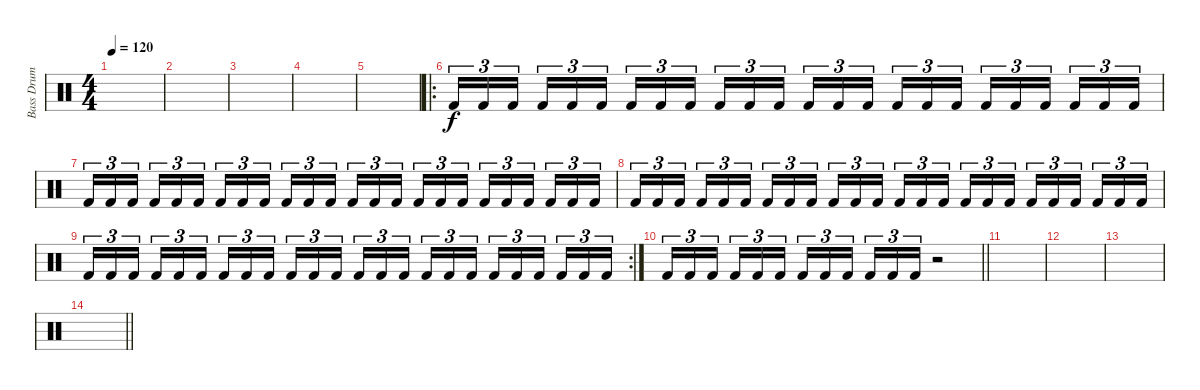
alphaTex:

\track ("Bass Drum Pattern" "Bass Drum ") {instrument percussion}
\staff {score}
\articulation defaults
\ts (4 4)
\tempo 120
\clef neutral
\ks c
|
|
|
|
|
\ro "Kick (hit) 2".16{tu (3 2)} "Kick (hit) 2".16{tu (3 2)} "Kick (hit) 2".16{tu (3 2)} "Kick (hit) 2".16{tu (3 2)} "Kick (hit) 2".16{tu (3 2)} "Kick (hit) 2".16{tu (3 2)} "Kick (hit) 2".16{tu (3 2)} "Kick (hit) 2".16{tu (3 2)} "Kick (hit) 2".16{tu (3 2)} "Kick (hit) 2".16{tu (3 2)} "Kick (hit) 2".16{tu (3 2)} "Kick (hit) 2".16{tu (3 2)} "Kick (hit) 2".16{tu (3 2)} "Kick (hit) 2".16{tu (3 2)} "Kick (hit) 2".16{tu (3 2)} "Kick (hit) 2".16{tu (3 2)} "Kick (hit) 2".16{tu (3 2)} "Kick (hit) 2".16{tu (3 2)} "Kick (hit) 2".16{tu (3 2)} "Kick (hit) 2".16{tu (3 2)} "Kick (hit) 2".16{tu (3 2)} "Kick (hit) 2".16{tu (3 2)} "Kick (hit) 2".16{tu (3 2)} "Kick (hit) 2".16{tu (3 2)}
|
"Kick (hit) 2".16{tu (3 2)} "Kick (hit) 2".16{tu (3 2)} "Kick (hit) 2".16{tu (3 2)} "Kick (hit) 2".16{tu (3 2)} "Kick (hit) 2".16{tu (3 2)} "Kick (hit) 2".16{tu (3 2)} "Kick (hit) 2".16{tu (3 2)} "Kick (hit) 2".16{tu (3 2)} "Kick (hit) 2".16{tu (3 2)} "Kick (hit) 2".16{tu (3 2)} "Kick (hit) 2".16{tu (3 2)} "Kick (hit) 2".16{tu (3 2)} "Kick (hit) 2".16{tu (3 2)} "Kick (hit) 2".16{tu (3 2)} "Kick (hit) 2".16{tu (3 2)} "Kick (hit) 2".16{tu (3 2)} "Kick (hit) 2".16{tu (3 2)} "Kick (hit) 2".16{tu (3 2)} "Kick (hit) 2".16{tu (3 2)} "Kick (hit) 2".16{tu (3 2)} "Kick (hit) 2".16{tu (3 2)} "Kick (hit) 2".16{tu (3 2)} "Kick (hit) 2".16{tu (3 2)} "Kick (hit) 2".16{tu (3 2)} |
"Kick (hit) 2".16{tu (3 2)} "Kick (hit) 2".16{tu (3 2)} "Kick (hit) 2".16{tu (3 2)} "Kick (hit) 2".16{tu (3 2)} "Kick (hit) 2".16{tu (3 2)} "Kick (hit) 2".16{tu (3 2)} "Kick (hit) 2".16{tu (3 2)} "Kick (hit) 2".16{tu (3 2)} "Kick (hit) 2".16{tu (3 2)} "Kick (hit) 2".16{tu (3 2)} "Kick (hit) 2".16{tu (3 2)} "Kick (hit) 2".16{tu (3 2)} "Kick (hit) 2".16{tu (3 2)} "Kick (hit) 2".16{tu (3 2)} "Kick (hit) 2".16{tu (3 2)} "Kick (hit) 2".16{tu (3 2)} "Kick (hit) 2".16{tu (3 2)} "Kick (hit) 2".16{tu (3 2)} "Kick (hit) 2".16{tu (3 2)} "Kick (hit) 2".16{tu (3 2)} "Kick (hit) 2".16{tu (3 2)} "Kick (hit) 2".16{tu (3 2)} "Kick (hit) 2".16{tu (3 2)} "Kick (hit) 2".16{tu (3 2)} |
\rc 2 "Kick (hit) 2".16{tu (3 2)} "Kick (hit) 2".16{tu (3 2)} "Kick (hit) 2".16{tu (3 2)} "Kick (hit) 2".16{tu (3 2)} "Kick (hit) 2".16{tu (3 2)} "Kick (hit) 2".16{tu (3 2)} "Kick (hit) 2".16{tu (3 2)} "Kick (hit) 2".16{tu (3 2)} "Kick (hit) 2".16{tu (3 2)} "Kick (hit) 2".16{tu (3 2)} "Kick (hit) 2".16{tu (3 2)} "Kick (hit) 2".16{tu (3 2)} "Kick (hit) 2".16{tu (3 2)} "Kick (hit) 2".16{tu (3 2)} "Kick (hit) 2".16{tu (3 2)} "Kick (hit) 2".16{tu (3 2)} "Kick (hit) 2".16{tu (3 2)} "Kick (hit) 2".16{tu (3 2)} "Kick (hit) 2".16{tu (3 2)} "Kick (hit) 2".16{tu (3 2)} "Kick (hit) 2".16{tu (3 2)} "Kick (hit) 2".16{tu (3 2)} "Kick (hit) 2".16{tu (3 2)} "Kick (hit) 2".16{tu (3 2)}
|
\barLineRight lightlight "Kick (hit) 2".16{tu (3 2)} "Kick (hit) 2".16{tu (3 2)} "Kick (hit) 2".16{tu (3 2)} "Kick (hit) 2".16{tu (3 2)} "Kick (hit) 2".16{tu (3 2)} "Kick (hit) 2".16{tu (3 2)} "Kick (hit) 2".16{tu (3 2)} "Kick (hit) 2".16{tu (3 2)} "Kick (hit) 2".16{tu (3 2)} "Kick (hit) 2".16{tu (3 2)} "Kick (hit) 2".16{tu (3 2)} "Kick (hit) 2".16{tu (3 2)}
r.2 |
|
|
|
\barLineRight lightlight
